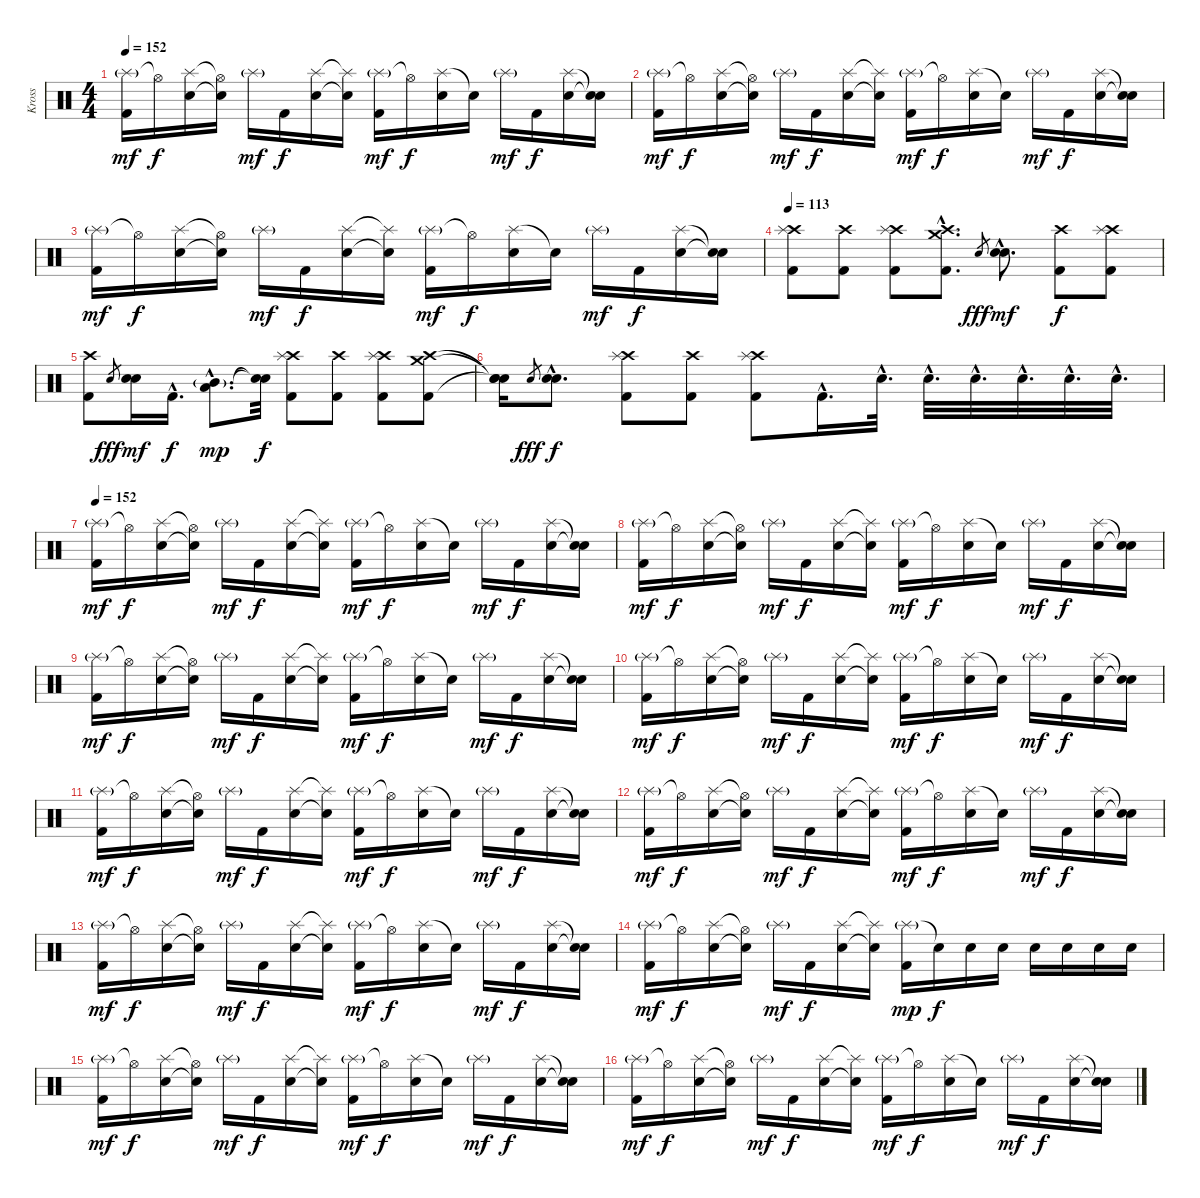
\track ("Kross" "Kross") {instrument percussion}
\staff {score}
\articulation defaults
\ts (4 4)
\tempo 152
\clef neutral
\ks c
("Splash (hit)"{g} "Kick (hit) 2").16{dy mf} "Hi-Hat (open)"{t}.16{dy f} ("Splash (hit)" "Electric Snare (hit)").16 ("Hi-Hat (open)"{t} "Electric Snare (hit)"{t}).16 "Splash (hit)"{g}.16{dy mf} "Kick (hit) 2".16{dy f} ("Splash (hit)" "Electric Snare (hit)").16 ("Splash (hit)"{t} "Electric Snare (hit)"{t}).16 ("Splash (hit)"{g} "Kick (hit) 2").16{dy mf} "Hi-Hat (open)"{t}.16{dy f} ("Splash (hit)" "Electric Snare (hit)").16 "Snare (hit)"{t}.16 "Splash (hit)"{g}.16{dy mf} "Kick (hit) 2".16{dy f} ("Splash (hit)" "Electric Snare (hit)").16 ("Snare (hit)"{t} "Snare (hit)"{t}).16 |
("Splash (hit)"{g} "Kick (hit) 2").16{dy mf} "Hi-Hat (open)"{t}.16{dy f} ("Splash (hit)" "Electric Snare (hit)").16 ("Hi-Hat (open)"{t} "Electric Snare (hit)"{t}).16 "Splash (hit)"{g}.16{dy mf} "Kick (hit) 2".16{dy f} ("Splash (hit)" "Electric Snare (hit)").16 ("Splash (hit)"{t} "Electric Snare (hit)"{t}).16 ("Splash (hit)"{g} "Kick (hit) 2").16{dy mf} "Hi-Hat (open)"{t}.16{dy f} ("Splash (hit)" "Electric Snare (hit)").16 "Snare (hit)"{t}.16 "Splash (hit)"{g}.16{dy mf} "Kick (hit) 2".16{dy f} ("Splash (hit)" "Electric Snare (hit)").16 ("Snare (hit)"{t} "Snare (hit)"{t}).16 |
("Splash (hit)"{g} "Kick (hit) 2").16{dy mf} "Hi-Hat (open)"{t}.16{dy f} ("Splash (hit)" "Electric Snare (hit)").16 ("Hi-Hat (open)"{t} "Electric Snare (hit)"{t}).16 "Splash (hit)"{g}.16{dy mf} "Kick (hit) 2".16{dy f} ("Splash (hit)" "Electric Snare (hit)").16 ("Splash (hit)"{t} "Electric Snare (hit)"{t}).16 ("Splash (hit)"{g} "Kick (hit) 2").16{dy mf} "Hi-Hat (open)"{t}.16{dy f} ("Splash (hit)" "Electric Snare (hit)").16 "Snare (hit)"{t}.16 "Splash (hit)"{g}.16{dy mf} "Kick (hit) 2".16{dy f} ("Splash (hit)" "Electric Snare (hit)").16 ("Snare (hit)"{t} "Snare (hit)"{t}).16 |
\tempo 113
("Crash high (hit)" "Splash (hit)" "Kick (hit) 2").8 ("Crash high (hit)" "Kick (hit) 2").8 ("Crash high (hit)" "Splash (hit)" "Kick (hit) 2").8 ("Crash high (hit)"{hac} "Crash medium (hit)"{hac} "Kick (hit) 2"{hac}).8{d} "Electric Snare (hit)".8{gr dy fff} ("Electric Snare (hit)"{hac} "Electric Snare (hit)"{hac}).8{d dy mf} ("Crash high (hit)" "Kick (hit) 2").8{dy f} ("Crash high (hit)" "Splash (hit)" "Kick (hit) 2").8 |
("Crash high (hit)" "Kick (hit) 2").8 "Electric Snare (hit)".8{gr dy fff} ("Electric Snare (hit)" "Electric Snare (hit)").16{dy mf} "Kick (hit) 2"{hac}.16{d dy f} ("Low Tom (hit)"{hac} "Mid Tom (hit)"{g hac}).8{d dy mp} ("Snare (hit)"{t} "Snare (hit)"{t}).32{dy f} ("Crash high (hit)" "Splash (hit)" "Kick (hit) 2").8 ("Crash high (hit)" "Kick (hit) 2").8 ("Crash high (hit)" "Splash (hit)" "Kick (hit) 2").8 ("Crash high (hit)" "Crash medium (hit)" "Kick (hit) 2").8 |
("Snare (hit)"{t} "Snare (hit)"{t} "Snare (hit)"{t}).16 "Electric Snare (hit)".8{gr dy fff} ("Electric Snare (hit)"{hac} "Electric Snare (hit)"{hac}).8{d dy f} ("Crash high (hit)" "Splash (hit)" "Kick (hit) 2").8 ("Crash high (hit)" "Kick (hit) 2").8 ("Crash high (hit)" "Splash (hit)" "Kick (hit) 2").8 "Kick (hit) 2"{hac}.16{d} "Electric Snare (hit)"{hac}.32{d} "Electric Snare (hit)"{hac}.32{d} "Electric Snare (hit)"{hac}.32{d} "Electric Snare (hit)"{hac}.32{d} "Electric Snare (hit)"{hac}.32{d} "Electric Snare (hit)"{hac}.32{d} |
\tempo 152
("Splash (hit)"{g} "Kick (hit) 2").16{dy mf} "Hi-Hat (open)"{t}.16{dy f} ("Splash (hit)" "Electric Snare (hit)").16 ("Hi-Hat (open)"{t} "Electric Snare (hit)"{t}).16 "Splash (hit)"{g}.16{dy mf} "Kick (hit) 2".16{dy f} ("Splash (hit)" "Electric Snare (hit)").16 ("Splash (hit)"{t} "Electric Snare (hit)"{t}).16 ("Splash (hit)"{g} "Kick (hit) 2").16{dy mf} "Hi-Hat (open)"{t}.16{dy f} ("Splash (hit)" "Electric Snare (hit)").16 "Snare (hit)"{t}.16 "Splash (hit)"{g}.16{dy mf} "Kick (hit) 2".16{dy f} ("Splash (hit)" "Electric Snare (hit)").16 ("Snare (hit)"{t} "Snare (hit)"{t}).16 |
("Splash (hit)"{g} "Kick (hit) 2").16{dy mf} "Hi-Hat (open)"{t}.16{dy f} ("Splash (hit)" "Electric Snare (hit)").16 ("Hi-Hat (open)"{t} "Electric Snare (hit)"{t}).16 "Splash (hit)"{g}.16{dy mf} "Kick (hit) 2".16{dy f} ("Splash (hit)" "Electric Snare (hit)").16 ("Splash (hit)"{t} "Electric Snare (hit)"{t}).16 ("Splash (hit)"{g} "Kick (hit) 2").16{dy mf} "Hi-Hat (open)"{t}.16{dy f} ("Splash (hit)" "Electric Snare (hit)").16 "Snare (hit)"{t}.16 "Splash (hit)"{g}.16{dy mf} "Kick (hit) 2".16{dy f} ("Splash (hit)" "Electric Snare (hit)").16 ("Snare (hit)"{t} "Snare (hit)"{t}).16 |
("Splash (hit)"{g} "Kick (hit) 2").16{dy mf} "Hi-Hat (open)"{t}.16{dy f} ("Splash (hit)" "Electric Snare (hit)").16 ("Hi-Hat (open)"{t} "Electric Snare (hit)"{t}).16 "Splash (hit)"{g}.16{dy mf} "Kick (hit) 2".16{dy f} ("Splash (hit)" "Electric Snare (hit)").16 ("Splash (hit)"{t} "Electric Snare (hit)"{t}).16 ("Splash (hit)"{g} "Kick (hit) 2").16{dy mf} "Hi-Hat (open)"{t}.16{dy f} ("Splash (hit)" "Electric Snare (hit)").16 "Snare (hit)"{t}.16 "Splash (hit)"{g}.16{dy mf} "Kick (hit) 2".16{dy f} ("Splash (hit)" "Electric Snare (hit)").16 ("Snare (hit)"{t} "Snare (hit)"{t}).16 |
("Splash (hit)"{g} "Kick (hit) 2").16{dy mf} "Hi-Hat (open)"{t}.16{dy f} ("Splash (hit)" "Electric Snare (hit)").16 ("Hi-Hat (open)"{t} "Electric Snare (hit)"{t}).16 "Splash (hit)"{g}.16{dy mf} "Kick (hit) 2".16{dy f} ("Splash (hit)" "Electric Snare (hit)").16 ("Splash (hit)"{t} "Electric Snare (hit)"{t}).16 ("Splash (hit)"{g} "Kick (hit) 2").16{dy mf} "Hi-Hat (open)"{t}.16{dy f} ("Splash (hit)" "Electric Snare (hit)").16 "Snare (hit)"{t}.16 "Splash (hit)"{g}.16{dy mf} "Kick (hit) 2".16{dy f} ("Splash (hit)" "Electric Snare (hit)").16 ("Snare (hit)"{t} "Snare (hit)"{t}).16 |
("Splash (hit)"{g} "Kick (hit) 2").16{dy mf} "Hi-Hat (open)"{t}.16{dy f} ("Splash (hit)" "Electric Snare (hit)").16 ("Hi-Hat (open)"{t} "Electric Snare (hit)"{t}).16 "Splash (hit)"{g}.16{dy mf} "Kick (hit) 2".16{dy f} ("Splash (hit)" "Electric Snare (hit)").16 ("Splash (hit)"{t} "Electric Snare (hit)"{t}).16 ("Splash (hit)"{g} "Kick (hit) 2").16{dy mf} "Hi-Hat (open)"{t}.16{dy f} ("Splash (hit)" "Electric Snare (hit)").16 "Snare (hit)"{t}.16 "Splash (hit)"{g}.16{dy mf} "Kick (hit) 2".16{dy f} ("Splash (hit)" "Electric Snare (hit)").16 ("Snare (hit)"{t} "Snare (hit)"{t}).16 |
("Splash (hit)"{g} "Kick (hit) 2").16{dy mf} "Hi-Hat (open)"{t}.16{dy f} ("Splash (hit)" "Electric Snare (hit)").16 ("Hi-Hat (open)"{t} "Electric Snare (hit)"{t}).16 "Splash (hit)"{g}.16{dy mf} "Kick (hit) 2".16{dy f} ("Splash (hit)" "Electric Snare (hit)").16 ("Splash (hit)"{t} "Electric Snare (hit)"{t}).16 ("Splash (hit)"{g} "Kick (hit) 2").16{dy mf} "Hi-Hat (open)"{t}.16{dy f} ("Splash (hit)" "Electric Snare (hit)").16 "Snare (hit)"{t}.16 "Splash (hit)"{g}.16{dy mf} "Kick (hit) 2".16{dy f} ("Splash (hit)" "Electric Snare (hit)").16 ("Snare (hit)"{t} "Snare (hit)"{t}).16 |
("Splash (hit)"{g} "Kick (hit) 2").16{dy mf} "Hi-Hat (open)"{t}.16{dy f} ("Splash (hit)" "Electric Snare (hit)").16 ("Hi-Hat (open)"{t} "Electric Snare (hit)"{t}).16 "Splash (hit)"{g}.16{dy mf} "Kick (hit) 2".16{dy f} ("Splash (hit)" "Electric Snare (hit)").16 ("Splash (hit)"{t} "Electric Snare (hit)"{t}).16 ("Splash (hit)"{g} "Kick (hit) 2").16{dy mf} "Hi-Hat (open)"{t}.16{dy f} ("Splash (hit)" "Electric Snare (hit)").16 "Snare (hit)"{t}.16 "Splash (hit)"{g}.16{dy mf} "Kick (hit) 2".16{dy f} ("Splash (hit)" "Electric Snare (hit)").16 ("Snare (hit)"{t} "Snare (hit)"{t}).16 |
("Splash (hit)"{g} "Kick (hit) 2").16{dy mf} "Hi-Hat (open)"{t}.16{dy f} ("Splash (hit)" "Electric Snare (hit)").16 ("Hi-Hat (open)"{t} "Electric Snare (hit)"{t}).16 "Splash (hit)"{g}.16{dy mf} "Kick (hit) 2".16{dy f} ("Splash (hit)" "Electric Snare (hit)").16 ("Splash (hit)"{t} "Electric Snare (hit)"{t}).16 ("Splash (hit)"{g} "Kick (hit) 2").16{dy mp} "Snare (hit)"{t}.16{dy f} "Electric Snare (hit)".16 "Electric Snare (hit)".16 "Electric Snare (hit)".16 "Electric Snare (hit)".16 "Electric Snare (hit)".16 "Electric Snare (hit)".16 |
("Splash (hit)"{g} "Kick (hit) 2").16{dy mf} "Hi-Hat (open)"{t}.16{dy f} ("Splash (hit)" "Electric Snare (hit)").16 ("Hi-Hat (open)"{t} "Electric Snare (hit)"{t}).16 "Splash (hit)"{g}.16{dy mf} "Kick (hit) 2".16{dy f} ("Splash (hit)" "Electric Snare (hit)").16 ("Splash (hit)"{t} "Electric Snare (hit)"{t}).16 ("Splash (hit)"{g} "Kick (hit) 2").16{dy mf} "Hi-Hat (open)"{t}.16{dy f} ("Splash (hit)" "Electric Snare (hit)").16 "Snare (hit)"{t}.16 "Splash (hit)"{g}.16{dy mf} "Kick (hit) 2".16{dy f} ("Splash (hit)" "Electric Snare (hit)").16 ("Snare (hit)"{t} "Snare (hit)"{t}).16 |
("Splash (hit)"{g} "Kick (hit) 2").16{dy mf} "Hi-Hat (open)"{t}.16{dy f} ("Splash (hit)" "Electric Snare (hit)").16 ("Hi-Hat (open)"{t} "Electric Snare (hit)"{t}).16 "Splash (hit)"{g}.16{dy mf} "Kick (hit) 2".16{dy f} ("Splash (hit)" "Electric Snare (hit)").16 ("Splash (hit)"{t} "Electric Snare (hit)"{t}).16 ("Splash (hit)"{g} "Kick (hit) 2").16{dy mf} "Hi-Hat (open)"{t}.16{dy f} ("Splash (hit)" "Electric Snare (hit)").16 "Snare (hit)"{t}.16 "Splash (hit)"{g}.16{dy mf} "Kick (hit) 2".16{dy f} ("Splash (hit)" "Electric Snare (hit)").16 ("Snare (hit)"{t} "Snare (hit)"{t}).16
